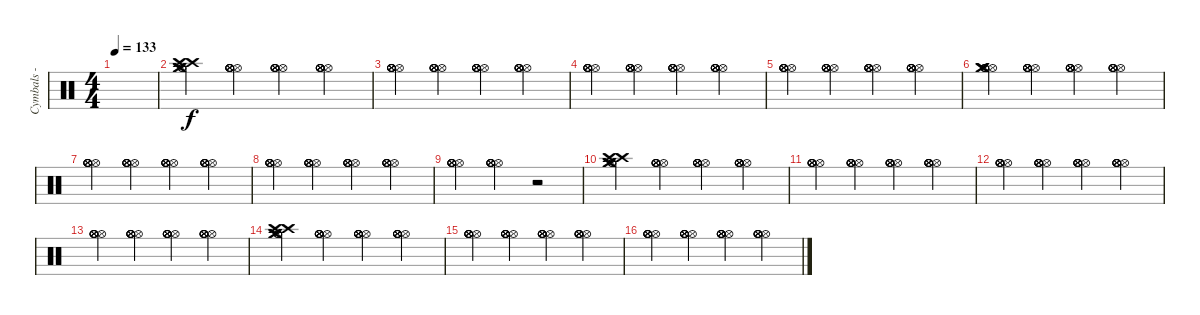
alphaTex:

\track ("Cymbals - Joe Daniels" "Cymbals - ") {instrument percussion}
\staff {score}
\articulation defaults
\ts (4 4)
\tempo 133
\clef neutral
\ks c
|
("Hi-Hat (open)" "Crash medium (hit)" "Crash medium (hit)" "Crash high (hit)" "Crash high (hit)" "Hi-Hat (open)").4 ("Hi-Hat (open)" "Hi-Hat (open)" "Hi-Hat (open)" "Hi-Hat (open)" "Hi-Hat (open)" "Hi-Hat (open)").4 ("Hi-Hat (open)" "Hi-Hat (open)" "Hi-Hat (open)" "Hi-Hat (open)" "Hi-Hat (open)" "Hi-Hat (open)").4 ("Hi-Hat (open)" "Hi-Hat (open)" "Hi-Hat (open)" "Hi-Hat (open)" "Hi-Hat (open)" "Hi-Hat (open)").4 |
("Hi-Hat (open)" "Hi-Hat (open)" "Hi-Hat (open)" "Hi-Hat (open)" "Hi-Hat (open)" "Hi-Hat (open)").4 ("Hi-Hat (open)" "Hi-Hat (open)" "Hi-Hat (open)" "Hi-Hat (open)" "Hi-Hat (open)" "Hi-Hat (open)").4 ("Hi-Hat (open)" "Hi-Hat (open)" "Hi-Hat (open)" "Hi-Hat (open)" "Hi-Hat (open)" "Hi-Hat (open)").4 ("Hi-Hat (open)" "Hi-Hat (open)" "Hi-Hat (open)" "Hi-Hat (open)" "Hi-Hat (open)" "Hi-Hat (open)").4 |
("Hi-Hat (open)" "Hi-Hat (open)" "Hi-Hat (open)" "Hi-Hat (open)" "Hi-Hat (open)" "Hi-Hat (open)").4 ("Hi-Hat (open)" "Hi-Hat (open)" "Hi-Hat (open)" "Hi-Hat (open)" "Hi-Hat (open)" "Hi-Hat (open)").4 ("Hi-Hat (open)" "Hi-Hat (open)" "Hi-Hat (open)" "Hi-Hat (open)" "Hi-Hat (open)" "Hi-Hat (open)").4 ("Hi-Hat (open)" "Hi-Hat (open)" "Hi-Hat (open)" "Hi-Hat (open)" "Hi-Hat (open)" "Hi-Hat (open)").4 |
("Hi-Hat (open)" "Hi-Hat (open)" "Hi-Hat (open)" "Hi-Hat (open)" "Hi-Hat (open)" "Hi-Hat (open)").4 ("Hi-Hat (open)" "Hi-Hat (open)" "Hi-Hat (open)" "Hi-Hat (open)" "Hi-Hat (open)" "Hi-Hat (open)").4 ("Hi-Hat (open)" "Hi-Hat (open)" "Hi-Hat (open)" "Hi-Hat (open)" "Hi-Hat (open)" "Hi-Hat (open)").4 ("Hi-Hat (open)" "Hi-Hat (open)" "Hi-Hat (open)" "Hi-Hat (open)" "Hi-Hat (open)" "Hi-Hat (open)").4 |
("Hi-Hat (open)" "Crash medium (hit)" "Crash medium (hit)" "Hi-Hat (open)" "Hi-Hat (open)" "Hi-Hat (open)").4 ("Hi-Hat (open)" "Hi-Hat (open)" "Hi-Hat (open)" "Hi-Hat (open)" "Hi-Hat (open)" "Hi-Hat (open)").4 ("Hi-Hat (open)" "Hi-Hat (open)" "Hi-Hat (open)" "Hi-Hat (open)" "Hi-Hat (open)" "Hi-Hat (open)").4 ("Hi-Hat (open)" "Hi-Hat (open)" "Hi-Hat (open)" "Hi-Hat (open)" "Hi-Hat (open)" "Hi-Hat (open)").4 |
("Hi-Hat (open)" "Hi-Hat (open)" "Hi-Hat (open)" "Hi-Hat (open)" "Hi-Hat (open)" "Hi-Hat (open)").4 ("Hi-Hat (open)" "Hi-Hat (open)" "Hi-Hat (open)" "Hi-Hat (open)" "Hi-Hat (open)" "Hi-Hat (open)").4 ("Hi-Hat (open)" "Hi-Hat (open)" "Hi-Hat (open)" "Hi-Hat (open)" "Hi-Hat (open)" "Hi-Hat (open)").4 ("Hi-Hat (open)" "Hi-Hat (open)" "Hi-Hat (open)" "Hi-Hat (open)" "Hi-Hat (open)" "Hi-Hat (open)").4 |
("Hi-Hat (open)" "Hi-Hat (open)" "Hi-Hat (open)" "Hi-Hat (open)" "Hi-Hat (open)" "Hi-Hat (open)").4 ("Hi-Hat (open)" "Hi-Hat (open)" "Hi-Hat (open)" "Hi-Hat (open)" "Hi-Hat (open)" "Hi-Hat (open)").4 ("Hi-Hat (open)" "Hi-Hat (open)" "Hi-Hat (open)" "Hi-Hat (open)" "Hi-Hat (open)" "Hi-Hat (open)").4 ("Hi-Hat (open)" "Hi-Hat (open)" "Hi-Hat (open)" "Hi-Hat (open)" "Hi-Hat (open)" "Hi-Hat (open)").4 |
("Hi-Hat (open)" "Hi-Hat (open)" "Hi-Hat (open)" "Hi-Hat (open)" "Hi-Hat (open)" "Hi-Hat (open)").4 ("Hi-Hat (open)" "Hi-Hat (open)" "Hi-Hat (open)" "Hi-Hat (open)" "Hi-Hat (open)" "Hi-Hat (open)").4 r.2 |
("Hi-Hat (open)" "Crash medium (hit)" "Crash medium (hit)" "Crash high (hit)" "Crash high (hit)" "Hi-Hat (open)").4 ("Hi-Hat (open)" "Hi-Hat (open)" "Hi-Hat (open)" "Hi-Hat (open)" "Hi-Hat (open)" "Hi-Hat (open)").4 ("Hi-Hat (open)" "Hi-Hat (open)" "Hi-Hat (open)" "Hi-Hat (open)" "Hi-Hat (open)" "Hi-Hat (open)").4 ("Hi-Hat (open)" "Hi-Hat (open)" "Hi-Hat (open)" "Hi-Hat (open)" "Hi-Hat (open)" "Hi-Hat (open)").4 |
("Hi-Hat (open)" "Hi-Hat (open)" "Hi-Hat (open)" "Hi-Hat (open)" "Hi-Hat (open)" "Hi-Hat (open)").4 ("Hi-Hat (open)" "Hi-Hat (open)" "Hi-Hat (open)" "Hi-Hat (open)" "Hi-Hat (open)" "Hi-Hat (open)").4 ("Hi-Hat (open)" "Hi-Hat (open)" "Hi-Hat (open)" "Hi-Hat (open)" "Hi-Hat (open)" "Hi-Hat (open)").4 ("Hi-Hat (open)" "Hi-Hat (open)" "Hi-Hat (open)" "Hi-Hat (open)" "Hi-Hat (open)" "Hi-Hat (open)").4 |
("Hi-Hat (open)" "Hi-Hat (open)" "Hi-Hat (open)" "Hi-Hat (open)" "Hi-Hat (open)" "Hi-Hat (open)").4 ("Hi-Hat (open)" "Hi-Hat (open)" "Hi-Hat (open)" "Hi-Hat (open)" "Hi-Hat (open)" "Hi-Hat (open)").4 ("Hi-Hat (open)" "Hi-Hat (open)" "Hi-Hat (open)" "Hi-Hat (open)" "Hi-Hat (open)" "Hi-Hat (open)").4 ("Hi-Hat (open)" "Hi-Hat (open)" "Hi-Hat (open)" "Hi-Hat (open)" "Hi-Hat (open)" "Hi-Hat (open)").4 |
("Hi-Hat (open)" "Hi-Hat (open)" "Hi-Hat (open)" "Hi-Hat (open)" "Hi-Hat (open)" "Hi-Hat (open)").4 ("Hi-Hat (open)" "Hi-Hat (open)" "Hi-Hat (open)" "Hi-Hat (open)" "Hi-Hat (open)" "Hi-Hat (open)").4 ("Hi-Hat (open)" "Hi-Hat (open)" "Hi-Hat (open)" "Hi-Hat (open)" "Hi-Hat (open)" "Hi-Hat (open)").4 ("Hi-Hat (open)" "Hi-Hat (open)" "Hi-Hat (open)" "Hi-Hat (open)" "Hi-Hat (open)" "Hi-Hat (open)").4 |
("Hi-Hat (open)" "Crash medium (hit)" "Crash medium (hit)" "Crash high (hit)" "Crash high (hit)" "Hi-Hat (open)").4 ("Hi-Hat (open)" "Hi-Hat (open)" "Hi-Hat (open)" "Hi-Hat (open)" "Hi-Hat (open)" "Hi-Hat (open)").4 ("Hi-Hat (open)" "Hi-Hat (open)" "Hi-Hat (open)" "Hi-Hat (open)" "Hi-Hat (open)" "Hi-Hat (open)").4 ("Hi-Hat (open)" "Hi-Hat (open)" "Hi-Hat (open)" "Hi-Hat (open)" "Hi-Hat (open)" "Hi-Hat (open)").4 |
("Hi-Hat (open)" "Hi-Hat (open)" "Hi-Hat (open)" "Hi-Hat (open)" "Hi-Hat (open)" "Hi-Hat (open)").4 ("Hi-Hat (open)" "Hi-Hat (open)" "Hi-Hat (open)" "Hi-Hat (open)" "Hi-Hat (open)" "Hi-Hat (open)").4 ("Hi-Hat (open)" "Hi-Hat (open)" "Hi-Hat (open)" "Hi-Hat (open)" "Hi-Hat (open)" "Hi-Hat (open)").4 ("Hi-Hat (open)" "Hi-Hat (open)" "Hi-Hat (open)" "Hi-Hat (open)" "Hi-Hat (open)" "Hi-Hat (open)").4 |
("Hi-Hat (open)" "Hi-Hat (open)" "Hi-Hat (open)" "Hi-Hat (open)" "Hi-Hat (open)" "Hi-Hat (open)").4 ("Hi-Hat (open)" "Hi-Hat (open)" "Hi-Hat (open)" "Hi-Hat (open)" "Hi-Hat (open)" "Hi-Hat (open)").4 ("Hi-Hat (open)" "Hi-Hat (open)" "Hi-Hat (open)" "Hi-Hat (open)" "Hi-Hat (open)" "Hi-Hat (open)").4 ("Hi-Hat (open)" "Hi-Hat (open)" "Hi-Hat (open)" "Hi-Hat (open)" "Hi-Hat (open)" "Hi-Hat (open)").4
